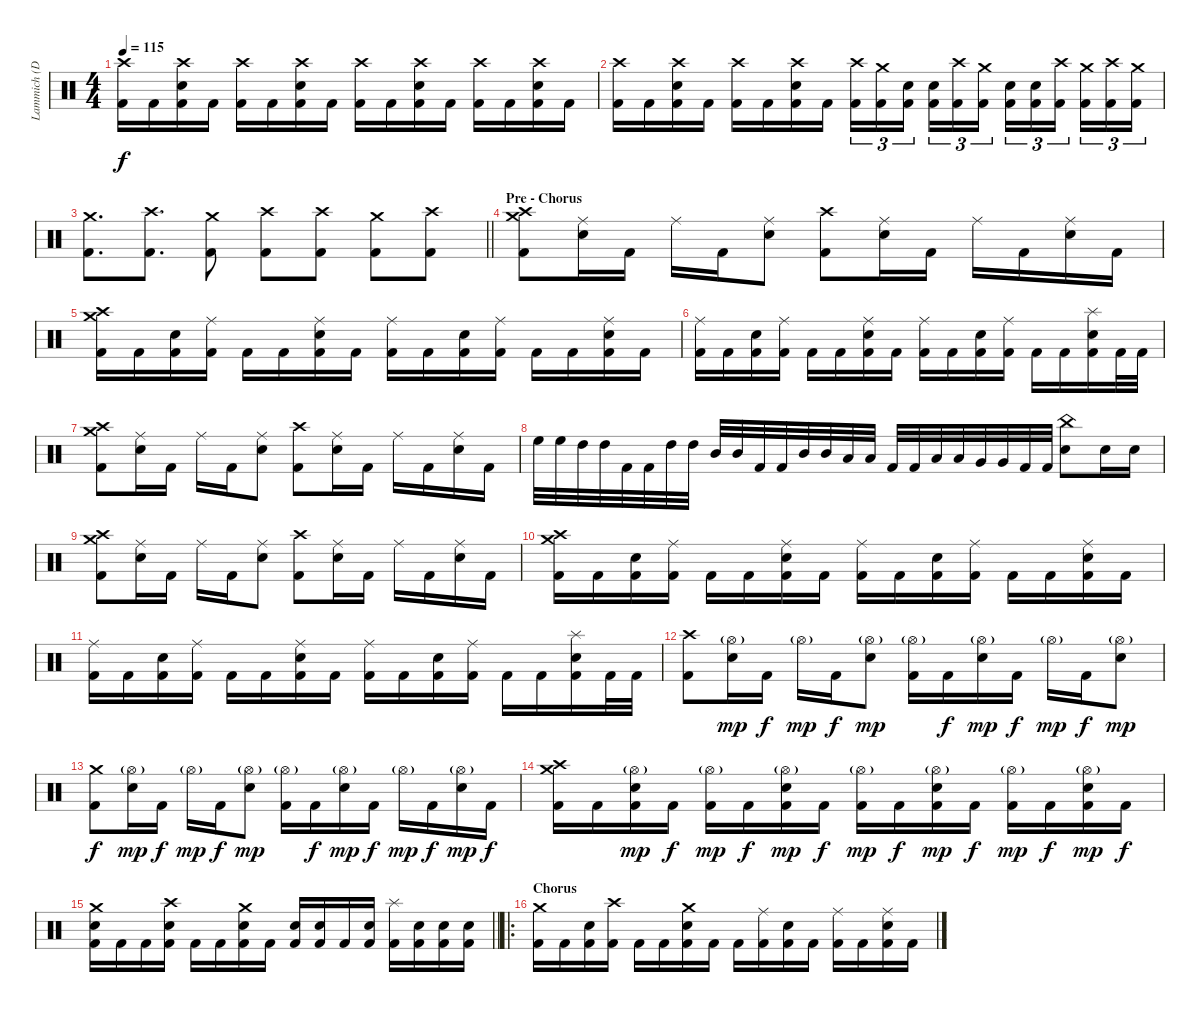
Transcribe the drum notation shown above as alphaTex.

\track ("Lammich (Drums)" "Lammich (D") {instrument percussion}
\staff {score}
\articulation defaults
\ts (4 4)
\tempo 115
\clef neutral
\ks c
("Crash high (hit)" "Kick (hit) 2").16{dy f} "Kick (hit) 2".16 ("Crash high (hit)" "Electric Snare (hit)" "Kick (hit) 2").16 "Kick (hit) 2".16 ("Crash high (hit)" "Kick (hit) 2").16 "Kick (hit) 2".16 ("Crash high (hit)" "Electric Snare (hit)" "Kick (hit) 2").16 "Kick (hit) 2".16 ("Crash high (hit)" "Kick (hit) 2").16 "Kick (hit) 2".16 ("Crash high (hit)" "Electric Snare (hit)" "Kick (hit) 2").16 "Kick (hit) 2".16 ("Crash high (hit)" "Kick (hit) 2").16 "Kick (hit) 2".16 ("Crash high (hit)" "Electric Snare (hit)" "Kick (hit) 2").16 "Kick (hit) 2".16 |
("Crash high (hit)" "Kick (hit) 2").16 "Kick (hit) 2".16 ("Crash high (hit)" "Electric Snare (hit)" "Kick (hit) 2").16 "Kick (hit) 2".16 ("Crash high (hit)" "Kick (hit) 2").16 "Kick (hit) 2".16 ("Crash high (hit)" "Electric Snare (hit)" "Kick (hit) 2").16 "Kick (hit) 2".16 ("Crash high (hit)" "Kick (hit) 2").16{tu (3 2)} ("Crash medium (hit)" "Kick (hit) 2").16{tu (3 2)} ("Electric Snare (hit)" "Kick (hit) 2").16{tu (3 2) beam splitsecondary} ("Electric Snare (hit)" "Kick (hit) 2").16{tu (3 2)} ("Crash high (hit)" "Kick (hit) 2").16{tu (3 2)} ("Crash medium (hit)" "Kick (hit) 2").16{tu (3 2)} ("Electric Snare (hit)" "Kick (hit) 2").16{tu (3 2)} ("Electric Snare (hit)" "Kick (hit) 2").16{tu (3 2)} ("Crash high (hit)" "Kick (hit) 2").16{tu (3 2) beam splitsecondary} ("Crash medium (hit)" "Kick (hit) 2").16{tu (3 2)} ("Crash high (hit)" "Kick (hit) 2").16{tu (3 2)} ("Crash medium (hit)" "Kick (hit) 2").16{tu (3 2)} |
\barLineRight lightlight
("Crash medium (hit)" "Kick (hit) 2").8{d} ("Crash high (hit)" "Kick (hit) 2").8{d} ("Crash medium (hit)" "Kick (hit) 2").8 ("Crash high (hit)" "Kick (hit) 2").8 ("Crash high (hit)" "Kick (hit) 2").8 ("Crash medium (hit)" "Kick (hit) 2").8 ("Crash high (hit)" "Kick (hit) 2").8 |
\section ("" "Pre - Chorus")
("Crash medium (hit)" "Crash high (hit)" "Kick (hit) 2").8 ("Ride (middle)" "Electric Snare (hit)").16 "Kick (hit) 2".16 "Ride (middle)".16 "Kick (hit) 2".16 ("Ride (middle)" "Electric Snare (hit)").8 ("Crash high (hit)" "Kick (hit) 2").8 ("Ride (middle)" "Electric Snare (hit)").16 "Kick (hit) 2".16 "Ride (middle)".16 "Kick (hit) 2".16 ("Ride (middle)" "Electric Snare (hit)").16 "Kick (hit) 2".16 |
("Crash medium (hit)" "Crash high (hit)" "Kick (hit) 2").16 "Kick (hit) 2".16 ("Electric Snare (hit)" "Kick (hit) 2").16 ("Ride (middle)" "Kick (hit) 2").16 "Kick (hit) 2".16 "Kick (hit) 2".16 ("Ride (middle)" "Electric Snare (hit)" "Kick (hit) 2").16 "Kick (hit) 2".16 ("Ride (middle)" "Kick (hit) 2").16 "Kick (hit) 2".16 ("Electric Snare (hit)" "Kick (hit) 2").16 ("Ride (middle)" "Kick (hit) 2").16 "Kick (hit) 2".16 "Kick (hit) 2".16 ("Ride (middle)" "Electric Snare (hit)" "Kick (hit) 2").16 "Kick (hit) 2".16 |
("Ride (middle)" "Kick (hit) 2").16 "Kick (hit) 2".16 ("Electric Snare (hit)" "Kick (hit) 2").16 ("Ride (middle)" "Kick (hit) 2").16 "Kick (hit) 2".16 "Kick (hit) 2".16 ("Ride (middle)" "Electric Snare (hit)" "Kick (hit) 2").16 "Kick (hit) 2".16 ("Ride (middle)" "Kick (hit) 2").16 "Kick (hit) 2".16 ("Electric Snare (hit)" "Kick (hit) 2").16 ("Ride (middle)" "Kick (hit) 2").16 "Kick (hit) 2".16 "Kick (hit) 2".16 ("Splash (hit)" "Electric Snare (hit)" "Kick (hit) 2").16 "Kick (hit) 2".32 "Kick (hit) 2".32 |
("Crash medium (hit)" "Crash high (hit)" "Kick (hit) 2").8 ("Ride (middle)" "Electric Snare (hit)").16 "Kick (hit) 2".16 "Ride (middle)".16 "Kick (hit) 2".16 ("Ride (middle)" "Electric Snare (hit)").8 ("Crash high (hit)" "Kick (hit) 2").8 ("Ride (middle)" "Electric Snare (hit)").16 "Kick (hit) 2".16 "Ride (middle)".16 "Kick (hit) 2".16 ("Ride (middle)" "Electric Snare (hit)").16 "Kick (hit) 2".16 |
"High Floor Tom (hit)".32 "High Floor Tom (hit)".32 "High Tom (hit)".32 "High Tom (hit)".32 "Kick (hit) 2".32 "Kick (hit) 2".32 "High Tom (hit)".32 "High Tom (hit)".32 "Mid Tom (hit)".32 "Mid Tom (hit)".32 "Kick (hit) 2".32 "Kick (hit) 2".32 "Mid Tom (hit)".32 "Mid Tom (hit)".32 "Low Tom (hit)".32 "Low Tom (hit)".32 "Kick (hit) 2".32 "Kick (hit) 2".32 "Low Tom (hit)".32 "Low Tom (hit)".32 "Very Low Tom (hit)".32 "Very Low Tom (hit)".32 "Kick (hit) 2".32 "Kick (hit) 2".32 ("China (hit)" "Electric Snare (hit)").8 "Electric Snare (hit)".16 "Electric Snare (hit)".16 |
("Crash medium (hit)" "Crash high (hit)" "Kick (hit) 2").8 ("Ride (middle)" "Electric Snare (hit)").16 "Kick (hit) 2".16 "Ride (middle)".16 "Kick (hit) 2".16 ("Ride (middle)" "Electric Snare (hit)").8 ("Crash high (hit)" "Kick (hit) 2").8 ("Ride (middle)" "Electric Snare (hit)").16 "Kick (hit) 2".16 "Ride (middle)".16 "Kick (hit) 2".16 ("Ride (middle)" "Electric Snare (hit)").16 "Kick (hit) 2".16 |
("Crash medium (hit)" "Crash high (hit)" "Kick (hit) 2").16 "Kick (hit) 2".16 ("Electric Snare (hit)" "Kick (hit) 2").16 ("Ride (middle)" "Kick (hit) 2").16 "Kick (hit) 2".16 "Kick (hit) 2".16 ("Ride (middle)" "Electric Snare (hit)" "Kick (hit) 2").16 "Kick (hit) 2".16 ("Ride (middle)" "Kick (hit) 2").16 "Kick (hit) 2".16 ("Electric Snare (hit)" "Kick (hit) 2").16 ("Ride (middle)" "Kick (hit) 2").16 "Kick (hit) 2".16 "Kick (hit) 2".16 ("Ride (middle)" "Electric Snare (hit)" "Kick (hit) 2").16 "Kick (hit) 2".16 |
("Ride (middle)" "Kick (hit) 2").16 "Kick (hit) 2".16 ("Electric Snare (hit)" "Kick (hit) 2").16 ("Ride (middle)" "Kick (hit) 2").16 "Kick (hit) 2".16 "Kick (hit) 2".16 ("Ride (middle)" "Electric Snare (hit)" "Kick (hit) 2").16 "Kick (hit) 2".16 ("Ride (middle)" "Kick (hit) 2").16 "Kick (hit) 2".16 ("Electric Snare (hit)" "Kick (hit) 2").16 ("Ride (middle)" "Kick (hit) 2").16 "Kick (hit) 2".16 "Kick (hit) 2".16 ("Splash (hit)" "Electric Snare (hit)" "Kick (hit) 2").16 "Kick (hit) 2".32 "Kick (hit) 2".32 |
("Crash high (hit)" "Kick (hit) 2").8 ("Hi-Hat (open)"{g} "Electric Snare (hit)").16{dy mp} "Kick (hit) 2".16{dy f} "Hi-Hat (open)"{g}.16{dy mp} "Kick (hit) 2".16{dy f} ("Hi-Hat (open)"{g} "Electric Snare (hit)").8{dy mp} ("Hi-Hat (open)"{g} "Kick (hit) 2").16 "Kick (hit) 2".16{dy f} ("Hi-Hat (open)"{g} "Electric Snare (hit)").16{dy mp} "Kick (hit) 2".16{dy f} "Hi-Hat (open)"{g}.16{dy mp} "Kick (hit) 2".16{dy f} ("Hi-Hat (open)"{g} "Electric Snare (hit)").8{dy mp} |
("Crash medium (hit)" "Kick (hit) 2").8{dy f} ("Hi-Hat (open)"{g} "Electric Snare (hit)").16{dy mp} "Kick (hit) 2".16{dy f} "Hi-Hat (open)"{g}.16{dy mp} "Kick (hit) 2".16{dy f} ("Hi-Hat (open)"{g} "Electric Snare (hit)").8{dy mp} ("Hi-Hat (open)"{g} "Kick (hit) 2").16 "Kick (hit) 2".16{dy f} ("Hi-Hat (open)"{g} "Electric Snare (hit)").16{dy mp} "Kick (hit) 2".16{dy f} "Hi-Hat (open)"{g}.16{dy mp} "Kick (hit) 2".16{dy f} ("Hi-Hat (open)"{g} "Electric Snare (hit)").16{dy mp} "Kick (hit) 2".16{dy f} |
("Crash medium (hit)" "Crash high (hit)" "Kick (hit) 2").16 "Kick (hit) 2".16 ("Hi-Hat (open)"{g} "Electric Snare (hit)" "Kick (hit) 2").16{dy mp} "Kick (hit) 2".16{dy f} ("Hi-Hat (open)"{g} "Kick (hit) 2").16{dy mp} "Kick (hit) 2".16{dy f} ("Hi-Hat (open)"{g} "Electric Snare (hit)" "Kick (hit) 2").16{dy mp} "Kick (hit) 2".16{dy f} ("Hi-Hat (open)"{g} "Kick (hit) 2").16{dy mp} "Kick (hit) 2".16{dy f} ("Hi-Hat (open)"{g} "Electric Snare (hit)" "Kick (hit) 2").16{dy mp} "Kick (hit) 2".16{dy f} ("Hi-Hat (open)"{g} "Kick (hit) 2").16{dy mp} "Kick (hit) 2".16{dy f} ("Hi-Hat (open)"{g} "Electric Snare (hit)" "Kick (hit) 2").16{dy mp} "Kick (hit) 2".16{dy f} |
\barLineRight lightlight
("Crash medium (hit)" "Electric Snare (hit)" "Kick (hit) 2").16 "Kick (hit) 2".16 "Kick (hit) 2".16 ("Crash high (hit)" "Electric Snare (hit)" "Kick (hit) 2").16 "Kick (hit) 2".16 "Kick (hit) 2".16 ("Crash medium (hit)" "Electric Snare (hit)" "Kick (hit) 2").16 "Kick (hit) 2".16 ("Electric Snare (hit)" "Kick (hit) 2").16 ("Electric Snare (hit)" "Kick (hit) 2").16 "Kick (hit) 2".16 ("Electric Snare (hit)" "Kick (hit) 2").16 ("Splash (hit)" "Kick (hit) 2").16 ("Electric Snare (hit)" "Kick (hit) 2").16 ("Electric Snare (hit)" "Kick (hit) 2").16 ("Electric Snare (hit)" "Kick (hit) 2").16 |
\ro
\section ("" "Chorus")
("Crash medium (hit)" "Kick (hit) 2").16 "Kick (hit) 2".16 ("Electric Snare (hit)" "Kick (hit) 2").16 ("Crash high (hit)" "Kick (hit) 2").16 "Kick (hit) 2".16 "Kick (hit) 2".16 ("Crash medium (hit)" "Electric Snare (hit)" "Kick (hit) 2").16 "Kick (hit) 2".16 "Kick (hit) 2".16 ("Ride (middle)" "Kick (hit) 2").16 ("Electric Snare (hit)" "Kick (hit) 2").16 "Kick (hit) 2".16 ("Ride (middle)" "Kick (hit) 2").16 "Kick (hit) 2".16 ("Ride (middle)" "Electric Snare (hit)" "Kick (hit) 2").16 "Kick (hit) 2".16
